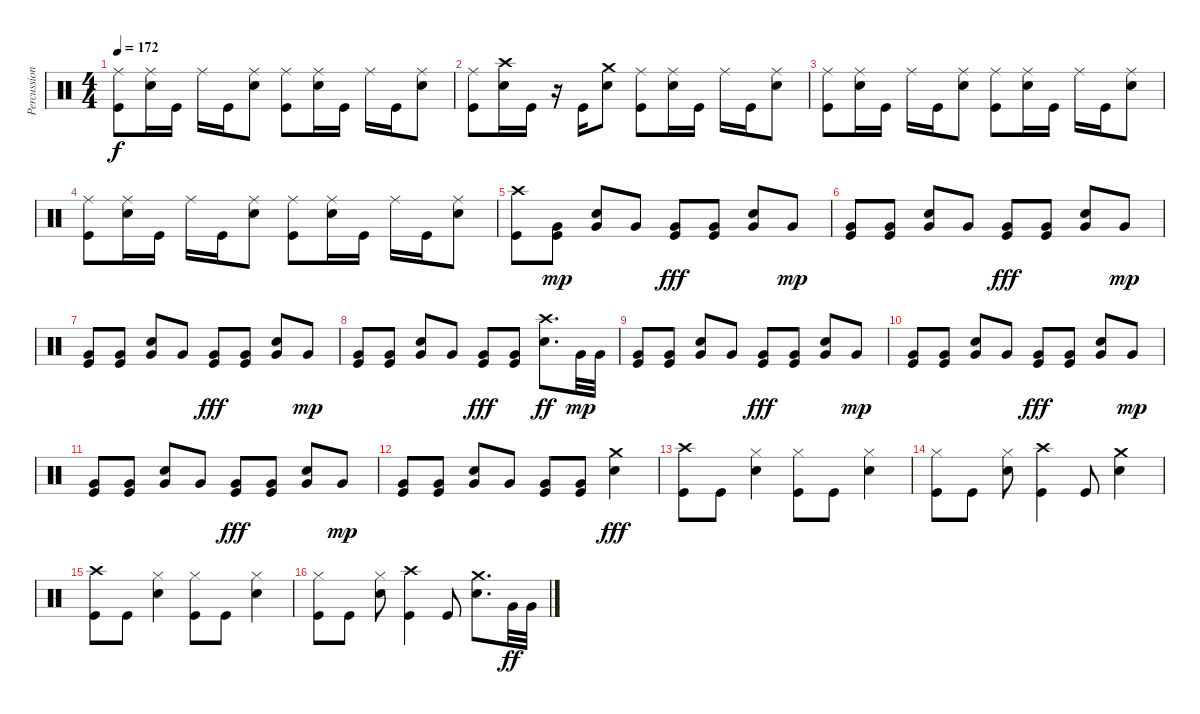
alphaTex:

\track ("Percussion" "Percussion") {instrument percussion}
\staff {score}
\articulation defaults
\ts (4 4)
\tempo 172
\clef neutral
\ks c
("Ride (middle)" "Kick (hit)").8{dy f} ("Ride (middle)" "Snare (hit) 2").16 "Kick (hit)".16 "Ride (middle)".16 "Kick (hit)".16 ("Ride (middle)" "Snare (hit) 2").8 ("Ride (middle)" "Kick (hit)").8 ("Ride (middle)" "Snare (hit) 2").16 "Kick (hit)".16 "Ride (middle)".16 "Kick (hit)".16 ("Ride (middle)" "Snare (hit) 2").8 |
("Ride (middle)" "Kick (hit)").8 ("Crash high (hit)" "Snare (hit) 2").16 "Kick (hit)".16 r.16 "Kick (hit)".16 ("Crash medium (hit)" "Snare (hit) 2").8 ("Ride (middle)" "Kick (hit)").8 ("Ride (middle)" "Snare (hit) 2").16 "Kick (hit)".16 "Ride (middle)".16 "Kick (hit)".16 ("Ride (middle)" "Snare (hit) 2").8 |
("Ride (middle)" "Kick (hit)").8 ("Ride (middle)" "Snare (hit) 2").16 "Kick (hit)".16 "Ride (middle)".16 "Kick (hit)".16 ("Ride (middle)" "Snare (hit) 2").8 ("Ride (middle)" "Kick (hit)").8 ("Ride (middle)" "Snare (hit) 2").16 "Kick (hit)".16 "Ride (middle)".16 "Kick (hit)".16 ("Ride (middle)" "Snare (hit) 2").8 |
("Ride (middle)" "Kick (hit)").8 ("Ride (middle)" "Snare (hit) 2").16 "Kick (hit)".16 "Ride (middle)".16 "Kick (hit)".16 ("Ride (middle)" "Snare (hit) 2").8 ("Ride (middle)" "Kick (hit)").8 ("Ride (middle)" "Snare (hit) 2").16 "Kick (hit)".16 "Ride (middle)".16 "Kick (hit)".16 ("Ride (middle)" "Snare (hit) 2").8 |
("Crash high (hit)" "Kick (hit)").8 ("Very Low Tom (hit)" "Kick (hit)").8{dy mp} ("Very Low Tom (hit)" "Snare (hit) 2").8 "Very Low Tom (hit)".8 ("Very Low Tom (hit)" "Kick (hit)").8{dy fff} ("Very Low Tom (hit)" "Kick (hit)").8 ("Very Low Tom (hit)" "Snare (hit) 2").8 "Very Low Tom (hit)".8{dy mp} |
("Very Low Tom (hit)" "Kick (hit)").8 ("Very Low Tom (hit)" "Kick (hit)").8 ("Very Low Tom (hit)" "Snare (hit) 2").8 "Very Low Tom (hit)".8 ("Very Low Tom (hit)" "Kick (hit)").8{dy fff} ("Very Low Tom (hit)" "Kick (hit)").8 ("Very Low Tom (hit)" "Snare (hit) 2").8 "Very Low Tom (hit)".8{dy mp} |
("Very Low Tom (hit)" "Kick (hit)").8 ("Very Low Tom (hit)" "Kick (hit)").8 ("Very Low Tom (hit)" "Snare (hit) 2").8 "Very Low Tom (hit)".8 ("Very Low Tom (hit)" "Kick (hit)").8{dy fff} ("Very Low Tom (hit)" "Kick (hit)").8 ("Very Low Tom (hit)" "Snare (hit) 2").8 "Very Low Tom (hit)".8{dy mp} |
("Very Low Tom (hit)" "Kick (hit)").8 ("Very Low Tom (hit)" "Kick (hit)").8 ("Very Low Tom (hit)" "Snare (hit) 2").8 "Very Low Tom (hit)".8 ("Very Low Tom (hit)" "Kick (hit)").8{dy fff} ("Very Low Tom (hit)" "Kick (hit)").8 ("Crash high (hit)" "Snare (hit) 2").8{d dy ff} "Very Low Tom (hit)".32{dy mp} "Very Low Tom (hit)".32 |
("Very Low Tom (hit)" "Kick (hit)").8 ("Very Low Tom (hit)" "Kick (hit)").8 ("Very Low Tom (hit)" "Snare (hit) 2").8 "Very Low Tom (hit)".8 ("Very Low Tom (hit)" "Kick (hit)").8{dy fff} ("Very Low Tom (hit)" "Kick (hit)").8 ("Very Low Tom (hit)" "Snare (hit) 2").8 "Very Low Tom (hit)".8{dy mp} |
("Very Low Tom (hit)" "Kick (hit)").8 ("Very Low Tom (hit)" "Kick (hit)").8 ("Very Low Tom (hit)" "Snare (hit) 2").8 "Very Low Tom (hit)".8 ("Very Low Tom (hit)" "Kick (hit)").8{dy fff} ("Very Low Tom (hit)" "Kick (hit)").8 ("Very Low Tom (hit)" "Snare (hit) 2").8 "Very Low Tom (hit)".8{dy mp} |
("Very Low Tom (hit)" "Kick (hit)").8 ("Very Low Tom (hit)" "Kick (hit)").8 ("Very Low Tom (hit)" "Snare (hit) 2").8 "Very Low Tom (hit)".8 ("Very Low Tom (hit)" "Kick (hit)").8{dy fff} ("Very Low Tom (hit)" "Kick (hit)").8 ("Very Low Tom (hit)" "Snare (hit) 2").8 "Very Low Tom (hit)".8{dy mp} |
("Very Low Tom (hit)" "Kick (hit)").8 ("Very Low Tom (hit)" "Kick (hit)").8 ("Very Low Tom (hit)" "Snare (hit) 2").8 "Very Low Tom (hit)".8 ("Very Low Tom (hit)" "Kick (hit)").8 ("Very Low Tom (hit)" "Kick (hit)").8 ("Crash medium (hit)" "Snare (hit) 2").4{dy fff} |
("Crash high (hit)" "Kick (hit)").8 "Kick (hit)".8 ("Hi-Hat (closed)" "Snare (hit) 2").4 ("Hi-Hat (closed)" "Kick (hit)").8 "Kick (hit)".8 ("Hi-Hat (closed)" "Snare (hit) 2").4 |
("Hi-Hat (closed)" "Kick (hit)").8 "Kick (hit)".8 ("Hi-Hat (closed)" "Snare (hit) 2").8 ("Crash high (hit)" "Kick (hit)").4 "Kick (hit)".8 ("Crash medium (hit)" "Snare (hit) 2").4 |
("Crash high (hit)" "Kick (hit)").8 "Kick (hit)".8 ("Hi-Hat (closed)" "Snare (hit) 2").4 ("Hi-Hat (closed)" "Kick (hit)").8 "Kick (hit)".8 ("Hi-Hat (closed)" "Snare (hit) 2").4 |
("Hi-Hat (closed)" "Kick (hit)").8 "Kick (hit)".8 ("Hi-Hat (closed)" "Snare (hit) 2").8 ("Crash high (hit)" "Kick (hit)").4 "Kick (hit)".8 ("Crash medium (hit)" "Snare (hit) 2").8{d} "Very Low Tom (hit)".32{dy ff} "Very Low Tom (hit)".32
